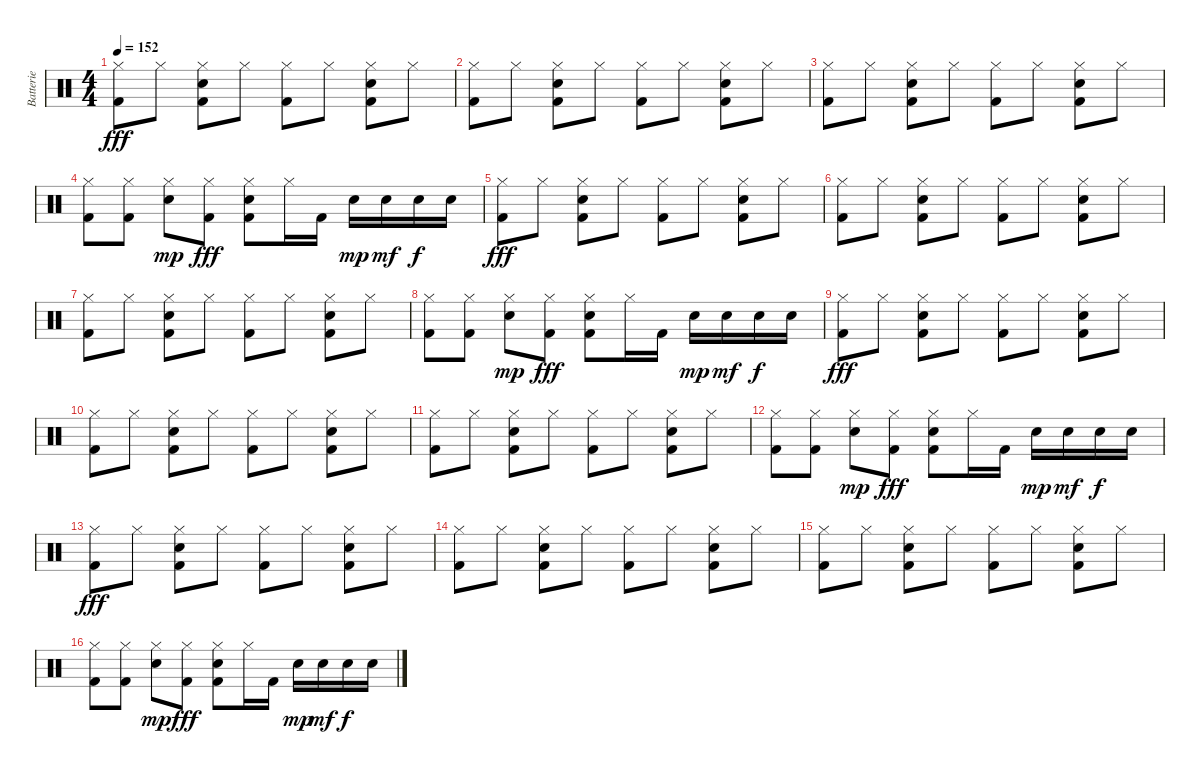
\track ("Batterie" "Batterie") {instrument percussion}
\staff {score}
\articulation defaults
\ts (4 4)
\tempo 152
\clef neutral
\ks c
("Hi-Hat (closed)" "Kick (hit) 2").8{dy fff} "Hi-Hat (closed)".8 ("Hi-Hat (closed)" "Snare (hit) 2" "Kick (hit) 2").8 "Hi-Hat (closed)".8 ("Hi-Hat (closed)" "Kick (hit) 2").8 "Hi-Hat (closed)".8 ("Hi-Hat (closed)" "Snare (hit) 2" "Kick (hit) 2").8 "Hi-Hat (closed)".8 |
("Hi-Hat (closed)" "Kick (hit) 2").8 "Hi-Hat (closed)".8 ("Hi-Hat (closed)" "Snare (hit) 2" "Kick (hit) 2").8 "Hi-Hat (closed)".8 ("Hi-Hat (closed)" "Kick (hit) 2").8 "Hi-Hat (closed)".8 ("Hi-Hat (closed)" "Snare (hit) 2" "Kick (hit) 2").8 "Hi-Hat (closed)".8 |
("Hi-Hat (closed)" "Kick (hit) 2").8 "Hi-Hat (closed)".8 ("Hi-Hat (closed)" "Snare (hit) 2" "Kick (hit) 2").8 "Hi-Hat (closed)".8 ("Hi-Hat (closed)" "Kick (hit) 2").8 "Hi-Hat (closed)".8 ("Hi-Hat (closed)" "Snare (hit) 2" "Kick (hit) 2").8 "Hi-Hat (closed)".8 |
("Hi-Hat (closed)" "Kick (hit) 2").8 ("Hi-Hat (closed)" "Kick (hit) 2").8 ("Hi-Hat (closed)" "Snare (hit) 2").8{dy mp} ("Hi-Hat (closed)" "Kick (hit) 2").8{dy fff} ("Hi-Hat (closed)" "Snare (hit) 2" "Kick (hit) 2").8 "Hi-Hat (closed)".16 "Kick (hit) 2".16 "Snare (hit) 2".16{dy mp} "Snare (hit) 2".16{dy mf} "Snare (hit) 2".16{dy f} "Snare (hit) 2".16 |
("Hi-Hat (closed)" "Kick (hit) 2").8{dy fff} "Hi-Hat (closed)".8 ("Hi-Hat (closed)" "Snare (hit) 2" "Kick (hit) 2").8 "Hi-Hat (closed)".8 ("Hi-Hat (closed)" "Kick (hit) 2").8 "Hi-Hat (closed)".8 ("Hi-Hat (closed)" "Snare (hit) 2" "Kick (hit) 2").8 "Hi-Hat (closed)".8 |
("Hi-Hat (closed)" "Kick (hit) 2").8 "Hi-Hat (closed)".8 ("Hi-Hat (closed)" "Snare (hit) 2" "Kick (hit) 2").8 "Hi-Hat (closed)".8 ("Hi-Hat (closed)" "Kick (hit) 2").8 "Hi-Hat (closed)".8 ("Hi-Hat (closed)" "Snare (hit) 2" "Kick (hit) 2").8 "Hi-Hat (closed)".8 |
("Hi-Hat (closed)" "Kick (hit) 2").8 "Hi-Hat (closed)".8 ("Hi-Hat (closed)" "Snare (hit) 2" "Kick (hit) 2").8 "Hi-Hat (closed)".8 ("Hi-Hat (closed)" "Kick (hit) 2").8 "Hi-Hat (closed)".8 ("Hi-Hat (closed)" "Snare (hit) 2" "Kick (hit) 2").8 "Hi-Hat (closed)".8 |
("Hi-Hat (closed)" "Kick (hit) 2").8 ("Hi-Hat (closed)" "Kick (hit) 2").8 ("Hi-Hat (closed)" "Snare (hit) 2").8{dy mp} ("Hi-Hat (closed)" "Kick (hit) 2").8{dy fff} ("Hi-Hat (closed)" "Snare (hit) 2" "Kick (hit) 2").8 "Hi-Hat (closed)".16 "Kick (hit) 2".16 "Snare (hit) 2".16{dy mp} "Snare (hit) 2".16{dy mf} "Snare (hit) 2".16{dy f} "Snare (hit) 2".16 |
("Hi-Hat (closed)" "Kick (hit) 2").8{dy fff} "Hi-Hat (closed)".8 ("Hi-Hat (closed)" "Snare (hit) 2" "Kick (hit) 2").8 "Hi-Hat (closed)".8 ("Hi-Hat (closed)" "Kick (hit) 2").8 "Hi-Hat (closed)".8 ("Hi-Hat (closed)" "Snare (hit) 2" "Kick (hit) 2").8 "Hi-Hat (closed)".8 |
("Hi-Hat (closed)" "Kick (hit) 2").8 "Hi-Hat (closed)".8 ("Hi-Hat (closed)" "Snare (hit) 2" "Kick (hit) 2").8 "Hi-Hat (closed)".8 ("Hi-Hat (closed)" "Kick (hit) 2").8 "Hi-Hat (closed)".8 ("Hi-Hat (closed)" "Snare (hit) 2" "Kick (hit) 2").8 "Hi-Hat (closed)".8 |
("Hi-Hat (closed)" "Kick (hit) 2").8 "Hi-Hat (closed)".8 ("Hi-Hat (closed)" "Snare (hit) 2" "Kick (hit) 2").8 "Hi-Hat (closed)".8 ("Hi-Hat (closed)" "Kick (hit) 2").8 "Hi-Hat (closed)".8 ("Hi-Hat (closed)" "Snare (hit) 2" "Kick (hit) 2").8 "Hi-Hat (closed)".8 |
("Hi-Hat (closed)" "Kick (hit) 2").8 ("Hi-Hat (closed)" "Kick (hit) 2").8 ("Hi-Hat (closed)" "Snare (hit) 2").8{dy mp} ("Hi-Hat (closed)" "Kick (hit) 2").8{dy fff} ("Hi-Hat (closed)" "Snare (hit) 2" "Kick (hit) 2").8 "Hi-Hat (closed)".16 "Kick (hit) 2".16 "Snare (hit) 2".16{dy mp} "Snare (hit) 2".16{dy mf} "Snare (hit) 2".16{dy f} "Snare (hit) 2".16 |
("Hi-Hat (closed)" "Kick (hit) 2").8{dy fff} "Hi-Hat (closed)".8 ("Hi-Hat (closed)" "Snare (hit) 2" "Kick (hit) 2").8 "Hi-Hat (closed)".8 ("Hi-Hat (closed)" "Kick (hit) 2").8 "Hi-Hat (closed)".8 ("Hi-Hat (closed)" "Snare (hit) 2" "Kick (hit) 2").8 "Hi-Hat (closed)".8 |
("Hi-Hat (closed)" "Kick (hit) 2").8 "Hi-Hat (closed)".8 ("Hi-Hat (closed)" "Snare (hit) 2" "Kick (hit) 2").8 "Hi-Hat (closed)".8 ("Hi-Hat (closed)" "Kick (hit) 2").8 "Hi-Hat (closed)".8 ("Hi-Hat (closed)" "Snare (hit) 2" "Kick (hit) 2").8 "Hi-Hat (closed)".8 |
("Hi-Hat (closed)" "Kick (hit) 2").8 "Hi-Hat (closed)".8 ("Hi-Hat (closed)" "Snare (hit) 2" "Kick (hit) 2").8 "Hi-Hat (closed)".8 ("Hi-Hat (closed)" "Kick (hit) 2").8 "Hi-Hat (closed)".8 ("Hi-Hat (closed)" "Snare (hit) 2" "Kick (hit) 2").8 "Hi-Hat (closed)".8 |
("Hi-Hat (closed)" "Kick (hit) 2").8 ("Hi-Hat (closed)" "Kick (hit) 2").8 ("Hi-Hat (closed)" "Snare (hit) 2").8{dy mp} ("Hi-Hat (closed)" "Kick (hit) 2").8{dy fff} ("Hi-Hat (closed)" "Snare (hit) 2" "Kick (hit) 2").8 "Hi-Hat (closed)".16 "Kick (hit) 2".16 "Snare (hit) 2".16{dy mp} "Snare (hit) 2".16{dy mf} "Snare (hit) 2".16{dy f} "Snare (hit) 2".16
